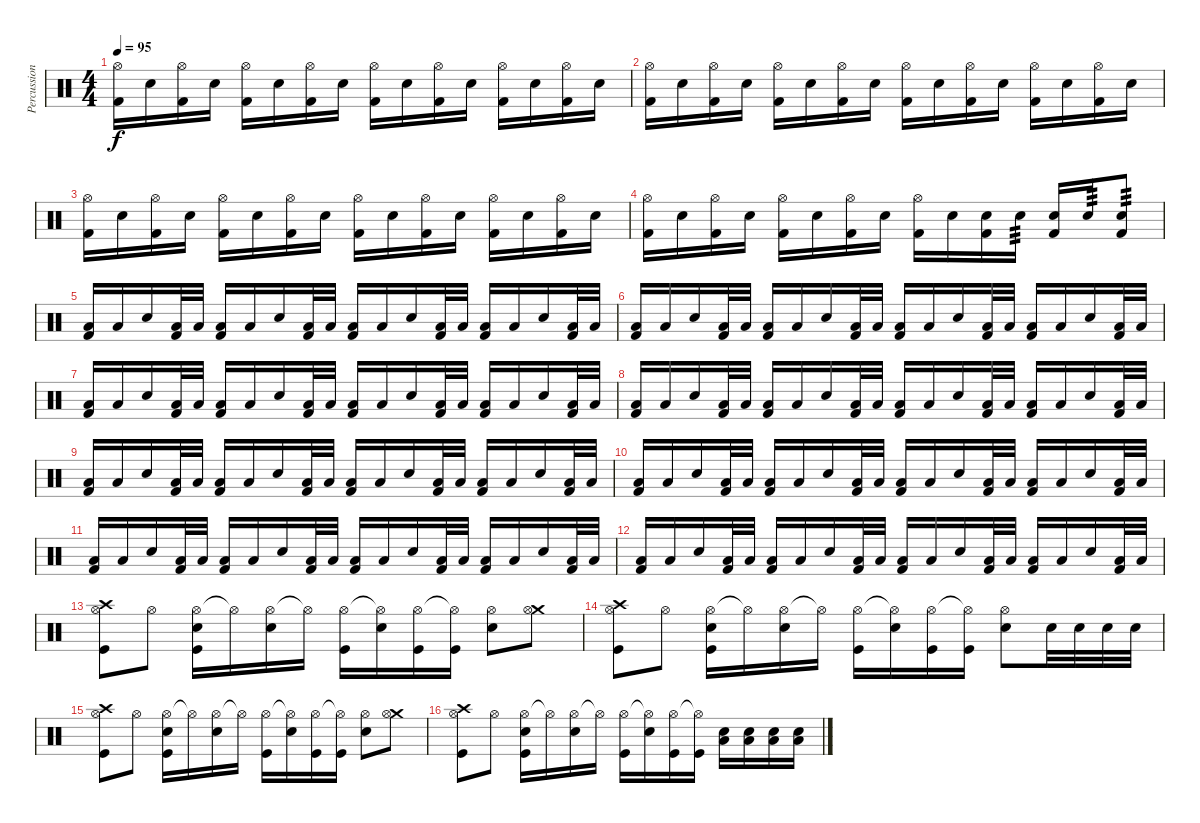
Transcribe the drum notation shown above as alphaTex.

\track ("Percussion" "Percussion") {instrument percussion}
\staff {score}
\articulation defaults
\ts (4 4)
\tempo 95
\clef neutral
\ks c
("Hi-Hat (open)" "Kick (hit) 2").16{dy f} "Snare (hit) 2".16 ("Hi-Hat (open)" "Kick (hit) 2").16 "Snare (hit) 2".16 ("Hi-Hat (open)" "Kick (hit) 2").16 "Snare (hit) 2".16 ("Hi-Hat (open)" "Kick (hit) 2").16 "Snare (hit) 2".16 ("Hi-Hat (open)" "Kick (hit) 2").16 "Snare (hit) 2".16 ("Hi-Hat (open)" "Kick (hit) 2").16 "Snare (hit) 2".16 ("Hi-Hat (open)" "Kick (hit) 2").16 "Snare (hit) 2".16 ("Hi-Hat (open)" "Kick (hit) 2").16 "Snare (hit) 2".16 |
("Hi-Hat (open)" "Kick (hit) 2").16 "Snare (hit) 2".16 ("Hi-Hat (open)" "Kick (hit) 2").16 "Snare (hit) 2".16 ("Hi-Hat (open)" "Kick (hit) 2").16 "Snare (hit) 2".16 ("Hi-Hat (open)" "Kick (hit) 2").16 "Snare (hit) 2".16 ("Hi-Hat (open)" "Kick (hit) 2").16 "Snare (hit) 2".16 ("Hi-Hat (open)" "Kick (hit) 2").16 "Snare (hit) 2".16 ("Hi-Hat (open)" "Kick (hit) 2").16 "Snare (hit) 2".16 ("Hi-Hat (open)" "Kick (hit) 2").16 "Snare (hit) 2".16 |
("Hi-Hat (open)" "Kick (hit) 2").16 "Snare (hit) 2".16 ("Hi-Hat (open)" "Kick (hit) 2").16 "Snare (hit) 2".16 ("Hi-Hat (open)" "Kick (hit) 2").16 "Snare (hit) 2".16 ("Hi-Hat (open)" "Kick (hit) 2").16 "Snare (hit) 2".16 ("Hi-Hat (open)" "Kick (hit) 2").16 "Snare (hit) 2".16 ("Hi-Hat (open)" "Kick (hit) 2").16 "Snare (hit) 2".16 ("Hi-Hat (open)" "Kick (hit) 2").16 "Snare (hit) 2".16 ("Hi-Hat (open)" "Kick (hit) 2").16 "Snare (hit) 2".16 |
("Hi-Hat (open)" "Kick (hit) 2").16 "Snare (hit) 2".16 ("Hi-Hat (open)" "Kick (hit) 2").16 "Snare (hit) 2".16 ("Hi-Hat (open)" "Kick (hit) 2").16 "Snare (hit) 2".16 ("Hi-Hat (open)" "Kick (hit) 2").16 "Snare (hit) 2".16 ("Hi-Hat (open)" "Kick (hit) 2").16 "Snare (hit) 2".16 ("Snare (hit) 2" "Kick (hit) 2").16 "Snare (hit) 2".16{tp 3} ("Snare (hit) 2" "Kick (hit) 2").16 "Snare (hit) 2".16{tp 3} ("Snare (hit) 2" "Kick (hit) 2").8{tp 3} |
("Low Floor Tom (hit)" "Kick (hit) 2").16 "Low Floor Tom (hit)".16 "Snare (hit) 2".16 ("Low Floor Tom (hit)" "Kick (hit) 2").32 "Low Floor Tom (hit)".32 ("Low Floor Tom (hit)" "Kick (hit) 2").16 "Low Floor Tom (hit)".16 "Snare (hit) 2".16 ("Low Floor Tom (hit)" "Kick (hit) 2").32 "Low Floor Tom (hit)".32 ("Low Floor Tom (hit)" "Kick (hit) 2").16 "Low Floor Tom (hit)".16 "Snare (hit) 2".16 ("Low Floor Tom (hit)" "Kick (hit) 2").32 "Low Floor Tom (hit)".32 ("Low Floor Tom (hit)" "Kick (hit) 2").16 "Low Floor Tom (hit)".16 "Snare (hit) 2".16 ("Low Floor Tom (hit)" "Kick (hit) 2").32 "Low Floor Tom (hit)".32 |
("Low Floor Tom (hit)" "Kick (hit) 2").16 "Low Floor Tom (hit)".16 "Snare (hit) 2".16 ("Low Floor Tom (hit)" "Kick (hit) 2").32 "Low Floor Tom (hit)".32 ("Low Floor Tom (hit)" "Kick (hit) 2").16 "Low Floor Tom (hit)".16 "Snare (hit) 2".16 ("Low Floor Tom (hit)" "Kick (hit) 2").32 "Low Floor Tom (hit)".32 ("Low Floor Tom (hit)" "Kick (hit) 2").16 "Low Floor Tom (hit)".16 "Snare (hit) 2".16 ("Low Floor Tom (hit)" "Kick (hit) 2").32 "Low Floor Tom (hit)".32 ("Low Floor Tom (hit)" "Kick (hit) 2").16 "Low Floor Tom (hit)".16 "Snare (hit) 2".16 ("Low Floor Tom (hit)" "Kick (hit) 2").32 "Low Floor Tom (hit)".32 |
("Low Floor Tom (hit)" "Kick (hit) 2").16 "Low Floor Tom (hit)".16 "Snare (hit) 2".16 ("Low Floor Tom (hit)" "Kick (hit) 2").32 "Low Floor Tom (hit)".32 ("Low Floor Tom (hit)" "Kick (hit) 2").16 "Low Floor Tom (hit)".16 "Snare (hit) 2".16 ("Low Floor Tom (hit)" "Kick (hit) 2").32 "Low Floor Tom (hit)".32 ("Low Floor Tom (hit)" "Kick (hit) 2").16 "Low Floor Tom (hit)".16 "Snare (hit) 2".16 ("Low Floor Tom (hit)" "Kick (hit) 2").32 "Low Floor Tom (hit)".32 ("Low Floor Tom (hit)" "Kick (hit) 2").16 "Low Floor Tom (hit)".16 "Snare (hit) 2".16 ("Low Floor Tom (hit)" "Kick (hit) 2").32 "Low Floor Tom (hit)".32 |
("Low Floor Tom (hit)" "Kick (hit) 2").16 "Low Floor Tom (hit)".16 "Snare (hit) 2".16 ("Low Floor Tom (hit)" "Kick (hit) 2").32 "Low Floor Tom (hit)".32 ("Low Floor Tom (hit)" "Kick (hit) 2").16 "Low Floor Tom (hit)".16 "Snare (hit) 2".16 ("Low Floor Tom (hit)" "Kick (hit) 2").32 "Low Floor Tom (hit)".32 ("Low Floor Tom (hit)" "Kick (hit) 2").16 "Low Floor Tom (hit)".16 "Snare (hit) 2".16 ("Low Floor Tom (hit)" "Kick (hit) 2").32 "Low Floor Tom (hit)".32 ("Low Floor Tom (hit)" "Kick (hit) 2").16 "Low Floor Tom (hit)".16 "Snare (hit) 2".16 ("Low Floor Tom (hit)" "Kick (hit) 2").32 "Low Floor Tom (hit)".32 |
("Low Floor Tom (hit)" "Kick (hit) 2").16 "Low Floor Tom (hit)".16 "Snare (hit) 2".16 ("Low Floor Tom (hit)" "Kick (hit) 2").32 "Low Floor Tom (hit)".32 ("Low Floor Tom (hit)" "Kick (hit) 2").16 "Low Floor Tom (hit)".16 "Snare (hit) 2".16 ("Low Floor Tom (hit)" "Kick (hit) 2").32 "Low Floor Tom (hit)".32 ("Low Floor Tom (hit)" "Kick (hit) 2").16 "Low Floor Tom (hit)".16 "Snare (hit) 2".16 ("Low Floor Tom (hit)" "Kick (hit) 2").32 "Low Floor Tom (hit)".32 ("Low Floor Tom (hit)" "Kick (hit) 2").16 "Low Floor Tom (hit)".16 "Snare (hit) 2".16 ("Low Floor Tom (hit)" "Kick (hit) 2").32 "Low Floor Tom (hit)".32 |
("Low Floor Tom (hit)" "Kick (hit) 2").16 "Low Floor Tom (hit)".16 "Snare (hit) 2".16 ("Low Floor Tom (hit)" "Kick (hit) 2").32 "Low Floor Tom (hit)".32 ("Low Floor Tom (hit)" "Kick (hit) 2").16 "Low Floor Tom (hit)".16 "Snare (hit) 2".16 ("Low Floor Tom (hit)" "Kick (hit) 2").32 "Low Floor Tom (hit)".32 ("Low Floor Tom (hit)" "Kick (hit) 2").16 "Low Floor Tom (hit)".16 "Snare (hit) 2".16 ("Low Floor Tom (hit)" "Kick (hit) 2").32 "Low Floor Tom (hit)".32 ("Low Floor Tom (hit)" "Kick (hit) 2").16 "Low Floor Tom (hit)".16 "Snare (hit) 2".16 ("Low Floor Tom (hit)" "Kick (hit) 2").32 "Low Floor Tom (hit)".32 |
("Low Floor Tom (hit)" "Kick (hit) 2").16 "Low Floor Tom (hit)".16 "Snare (hit) 2".16 ("Low Floor Tom (hit)" "Kick (hit) 2").32 "Low Floor Tom (hit)".32 ("Low Floor Tom (hit)" "Kick (hit) 2").16 "Low Floor Tom (hit)".16 "Snare (hit) 2".16 ("Low Floor Tom (hit)" "Kick (hit) 2").32 "Low Floor Tom (hit)".32 ("Low Floor Tom (hit)" "Kick (hit) 2").16 "Low Floor Tom (hit)".16 "Snare (hit) 2".16 ("Low Floor Tom (hit)" "Kick (hit) 2").32 "Low Floor Tom (hit)".32 ("Low Floor Tom (hit)" "Kick (hit) 2").16 "Low Floor Tom (hit)".16 "Snare (hit) 2".16 ("Low Floor Tom (hit)" "Kick (hit) 2").32 "Low Floor Tom (hit)".32 |
("Low Floor Tom (hit)" "Kick (hit) 2").16 "Low Floor Tom (hit)".16 "Snare (hit) 2".16 ("Low Floor Tom (hit)" "Kick (hit) 2").32 "Low Floor Tom (hit)".32 ("Low Floor Tom (hit)" "Kick (hit) 2").16 "Low Floor Tom (hit)".16 "Snare (hit) 2".16 ("Low Floor Tom (hit)" "Kick (hit) 2").32 "Low Floor Tom (hit)".32 ("Low Floor Tom (hit)" "Kick (hit) 2").16 "Low Floor Tom (hit)".16 "Snare (hit) 2".16 ("Low Floor Tom (hit)" "Kick (hit) 2").32 "Low Floor Tom (hit)".32 ("Low Floor Tom (hit)" "Kick (hit) 2").16 "Low Floor Tom (hit)".16 "Snare (hit) 2".16 ("Low Floor Tom (hit)" "Kick (hit) 2").32 "Low Floor Tom (hit)".32 |
("Crash high (hit)" "Hi-Hat (open)" "Kick (hit)").8 "Hi-Hat (open)".8 ("Hi-Hat (open)" "Snare (hit) 2" "Kick (hit)").16 "Hi-Hat (open)"{t}.16 ("Hi-Hat (open)" "Snare (hit) 2").16 "Hi-Hat (open)"{t}.16 ("Hi-Hat (open)" "Kick (hit)").16 ("Hi-Hat (open)"{t} "Snare (hit) 2").16 ("Hi-Hat (open)" "Kick (hit)").16 ("Hi-Hat (open)"{t} "Kick (hit)").16 ("Hi-Hat (open)" "Snare (hit) 2").8 ("Crash medium (hit)" "Hi-Hat (open)").8 |
("Crash high (hit)" "Hi-Hat (open)" "Kick (hit)").8 "Hi-Hat (open)".8 ("Hi-Hat (open)" "Snare (hit) 2" "Kick (hit)").16 "Hi-Hat (open)"{t}.16 ("Hi-Hat (open)" "Snare (hit) 2").16 "Hi-Hat (open)"{t}.16 ("Hi-Hat (open)" "Kick (hit)").16 ("Hi-Hat (open)"{t} "Snare (hit) 2").16 ("Hi-Hat (open)" "Kick (hit)").16 ("Hi-Hat (open)"{t} "Kick (hit)").16 ("Hi-Hat (open)" "Snare (hit) 2").8 "Snare (hit) 2".32 "Snare (hit) 2".32 "Snare (hit) 2".32 "Snare (hit) 2".32 |
("Crash high (hit)" "Hi-Hat (open)" "Kick (hit)").8 "Hi-Hat (open)".8 ("Hi-Hat (open)" "Snare (hit) 2" "Kick (hit)").16 "Hi-Hat (open)"{t}.16 ("Hi-Hat (open)" "Snare (hit) 2").16 "Hi-Hat (open)"{t}.16 ("Hi-Hat (open)" "Kick (hit)").16 ("Hi-Hat (open)"{t} "Snare (hit) 2").16 ("Hi-Hat (open)" "Kick (hit)").16 ("Hi-Hat (open)"{t} "Kick (hit)").16 ("Hi-Hat (open)" "Snare (hit) 2").8 ("Crash medium (hit)" "Hi-Hat (open)").8 |
("Crash high (hit)" "Hi-Hat (open)" "Kick (hit)").8 "Hi-Hat (open)".8 ("Hi-Hat (open)" "Snare (hit) 2" "Kick (hit)").16 "Hi-Hat (open)"{t}.16 ("Hi-Hat (open)" "Snare (hit) 2").16 "Hi-Hat (open)"{t}.16 ("Hi-Hat (open)" "Kick (hit)").16 ("Hi-Hat (open)"{t} "Snare (hit) 2").16 ("Hi-Hat (open)" "Kick (hit)").16 ("Hi-Hat (open)"{t} "Kick (hit)").16 ("Snare (hit) 2" "Low Tom (hit)").16 ("Snare (hit) 2" "Low Tom (hit)").16 ("Snare (hit) 2" "Low Tom (hit)").16 ("Snare (hit) 2" "Low Tom (hit)").16
